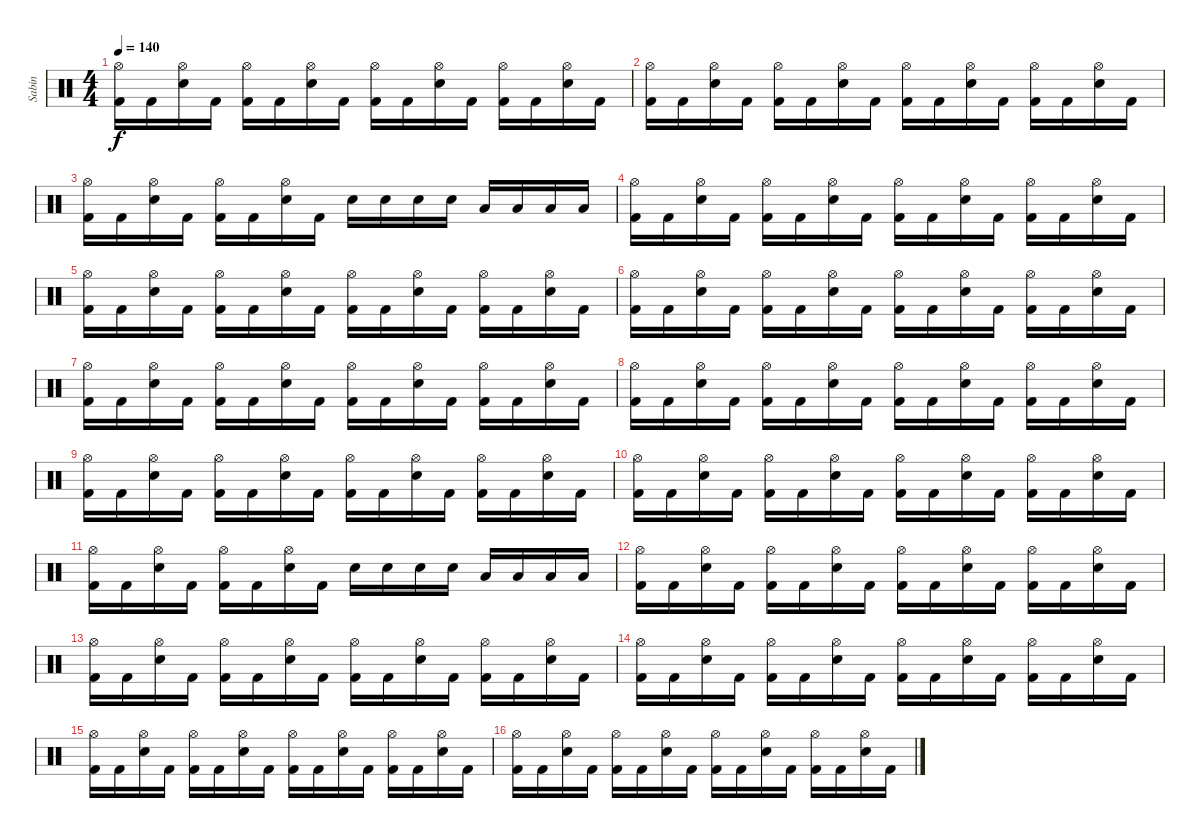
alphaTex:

\track ("Sabin" "Sabin") {instrument percussion}
\staff {score}
\articulation defaults
\ts (4 4)
\tempo 140
\clef neutral
\ks c
("Hi-Hat (open)" "Kick (hit) 2").16{dy f} "Kick (hit) 2".16 ("Hi-Hat (open)" "Snare (hit) 2").16 "Kick (hit) 2".16 ("Hi-Hat (open)" "Kick (hit) 2").16 "Kick (hit) 2".16 ("Hi-Hat (open)" "Snare (hit) 2").16 "Kick (hit) 2".16 ("Hi-Hat (open)" "Kick (hit) 2").16 "Kick (hit) 2".16 ("Hi-Hat (open)" "Snare (hit) 2").16 "Kick (hit) 2".16 ("Hi-Hat (open)" "Kick (hit) 2").16 "Kick (hit) 2".16 ("Hi-Hat (open)" "Snare (hit) 2").16 "Kick (hit) 2".16 |
("Hi-Hat (open)" "Kick (hit) 2").16 "Kick (hit) 2".16 ("Hi-Hat (open)" "Snare (hit) 2").16 "Kick (hit) 2".16 ("Hi-Hat (open)" "Kick (hit) 2").16 "Kick (hit) 2".16 ("Hi-Hat (open)" "Snare (hit) 2").16 "Kick (hit) 2".16 ("Hi-Hat (open)" "Kick (hit) 2").16 "Kick (hit) 2".16 ("Hi-Hat (open)" "Snare (hit) 2").16 "Kick (hit) 2".16 ("Hi-Hat (open)" "Kick (hit) 2").16 "Kick (hit) 2".16 ("Hi-Hat (open)" "Snare (hit) 2").16 "Kick (hit) 2".16 |
("Hi-Hat (open)" "Kick (hit) 2").16 "Kick (hit) 2".16 ("Hi-Hat (open)" "Snare (hit) 2").16 "Kick (hit) 2".16 ("Hi-Hat (open)" "Kick (hit) 2").16 "Kick (hit) 2".16 ("Hi-Hat (open)" "Snare (hit) 2").16 "Kick (hit) 2".16 "Snare (hit) 2".16 "Snare (hit) 2".16 "Snare (hit) 2".16 "Snare (hit) 2".16 "Low Floor Tom (hit)".16 "Low Floor Tom (hit)".16 "Low Floor Tom (hit)".16 "Low Floor Tom (hit)".16 |
("Hi-Hat (open)" "Kick (hit) 2").16 "Kick (hit) 2".16 ("Hi-Hat (open)" "Snare (hit) 2").16 "Kick (hit) 2".16 ("Hi-Hat (open)" "Kick (hit) 2").16 "Kick (hit) 2".16 ("Hi-Hat (open)" "Snare (hit) 2").16 "Kick (hit) 2".16 ("Hi-Hat (open)" "Kick (hit) 2").16 "Kick (hit) 2".16 ("Hi-Hat (open)" "Snare (hit) 2").16 "Kick (hit) 2".16 ("Hi-Hat (open)" "Kick (hit) 2").16 "Kick (hit) 2".16 ("Hi-Hat (open)" "Snare (hit) 2").16 "Kick (hit) 2".16 |
("Hi-Hat (open)" "Kick (hit) 2").16 "Kick (hit) 2".16 ("Hi-Hat (open)" "Snare (hit) 2").16 "Kick (hit) 2".16 ("Hi-Hat (open)" "Kick (hit) 2").16 "Kick (hit) 2".16 ("Hi-Hat (open)" "Snare (hit) 2").16 "Kick (hit) 2".16 ("Hi-Hat (open)" "Kick (hit) 2").16 "Kick (hit) 2".16 ("Hi-Hat (open)" "Snare (hit) 2").16 "Kick (hit) 2".16 ("Hi-Hat (open)" "Kick (hit) 2").16 "Kick (hit) 2".16 ("Hi-Hat (open)" "Snare (hit) 2").16 "Kick (hit) 2".16 |
("Hi-Hat (open)" "Kick (hit) 2").16 "Kick (hit) 2".16 ("Hi-Hat (open)" "Snare (hit) 2").16 "Kick (hit) 2".16 ("Hi-Hat (open)" "Kick (hit) 2").16 "Kick (hit) 2".16 ("Hi-Hat (open)" "Snare (hit) 2").16 "Kick (hit) 2".16 ("Hi-Hat (open)" "Kick (hit) 2").16 "Kick (hit) 2".16 ("Hi-Hat (open)" "Snare (hit) 2").16 "Kick (hit) 2".16 ("Hi-Hat (open)" "Kick (hit) 2").16 "Kick (hit) 2".16 ("Hi-Hat (open)" "Snare (hit) 2").16 "Kick (hit) 2".16 |
("Hi-Hat (open)" "Kick (hit) 2").16 "Kick (hit) 2".16 ("Hi-Hat (open)" "Snare (hit) 2").16 "Kick (hit) 2".16 ("Hi-Hat (open)" "Kick (hit) 2").16 "Kick (hit) 2".16 ("Hi-Hat (open)" "Snare (hit) 2").16 "Kick (hit) 2".16 ("Hi-Hat (open)" "Kick (hit) 2").16 "Kick (hit) 2".16 ("Hi-Hat (open)" "Snare (hit) 2").16 "Kick (hit) 2".16 ("Hi-Hat (open)" "Kick (hit) 2").16 "Kick (hit) 2".16 ("Hi-Hat (open)" "Snare (hit) 2").16 "Kick (hit) 2".16 |
("Hi-Hat (open)" "Kick (hit) 2").16 "Kick (hit) 2".16 ("Hi-Hat (open)" "Snare (hit) 2").16 "Kick (hit) 2".16 ("Hi-Hat (open)" "Kick (hit) 2").16 "Kick (hit) 2".16 ("Hi-Hat (open)" "Snare (hit) 2").16 "Kick (hit) 2".16 ("Hi-Hat (open)" "Kick (hit) 2").16 "Kick (hit) 2".16 ("Hi-Hat (open)" "Snare (hit) 2").16 "Kick (hit) 2".16 ("Hi-Hat (open)" "Kick (hit) 2").16 "Kick (hit) 2".16 ("Hi-Hat (open)" "Snare (hit) 2").16 "Kick (hit) 2".16 |
("Hi-Hat (open)" "Kick (hit) 2").16 "Kick (hit) 2".16 ("Hi-Hat (open)" "Snare (hit) 2").16 "Kick (hit) 2".16 ("Hi-Hat (open)" "Kick (hit) 2").16 "Kick (hit) 2".16 ("Hi-Hat (open)" "Snare (hit) 2").16 "Kick (hit) 2".16 ("Hi-Hat (open)" "Kick (hit) 2").16 "Kick (hit) 2".16 ("Hi-Hat (open)" "Snare (hit) 2").16 "Kick (hit) 2".16 ("Hi-Hat (open)" "Kick (hit) 2").16 "Kick (hit) 2".16 ("Hi-Hat (open)" "Snare (hit) 2").16 "Kick (hit) 2".16 |
("Hi-Hat (open)" "Kick (hit) 2").16 "Kick (hit) 2".16 ("Hi-Hat (open)" "Snare (hit) 2").16 "Kick (hit) 2".16 ("Hi-Hat (open)" "Kick (hit) 2").16 "Kick (hit) 2".16 ("Hi-Hat (open)" "Snare (hit) 2").16 "Kick (hit) 2".16 ("Hi-Hat (open)" "Kick (hit) 2").16 "Kick (hit) 2".16 ("Hi-Hat (open)" "Snare (hit) 2").16 "Kick (hit) 2".16 ("Hi-Hat (open)" "Kick (hit) 2").16 "Kick (hit) 2".16 ("Hi-Hat (open)" "Snare (hit) 2").16 "Kick (hit) 2".16 |
("Hi-Hat (open)" "Kick (hit) 2").16 "Kick (hit) 2".16 ("Hi-Hat (open)" "Snare (hit) 2").16 "Kick (hit) 2".16 ("Hi-Hat (open)" "Kick (hit) 2").16 "Kick (hit) 2".16 ("Hi-Hat (open)" "Snare (hit) 2").16 "Kick (hit) 2".16 "Snare (hit) 2".16 "Snare (hit) 2".16 "Snare (hit) 2".16 "Snare (hit) 2".16 "Low Floor Tom (hit)".16 "Low Floor Tom (hit)".16 "Low Floor Tom (hit)".16 "Low Floor Tom (hit)".16 |
("Hi-Hat (open)" "Kick (hit) 2").16 "Kick (hit) 2".16 ("Hi-Hat (open)" "Snare (hit) 2").16 "Kick (hit) 2".16 ("Hi-Hat (open)" "Kick (hit) 2").16 "Kick (hit) 2".16 ("Hi-Hat (open)" "Snare (hit) 2").16 "Kick (hit) 2".16 ("Hi-Hat (open)" "Kick (hit) 2").16 "Kick (hit) 2".16 ("Hi-Hat (open)" "Snare (hit) 2").16 "Kick (hit) 2".16 ("Hi-Hat (open)" "Kick (hit) 2").16 "Kick (hit) 2".16 ("Hi-Hat (open)" "Snare (hit) 2").16 "Kick (hit) 2".16 |
("Hi-Hat (open)" "Kick (hit) 2").16 "Kick (hit) 2".16 ("Hi-Hat (open)" "Snare (hit) 2").16 "Kick (hit) 2".16 ("Hi-Hat (open)" "Kick (hit) 2").16 "Kick (hit) 2".16 ("Hi-Hat (open)" "Snare (hit) 2").16 "Kick (hit) 2".16 ("Hi-Hat (open)" "Kick (hit) 2").16 "Kick (hit) 2".16 ("Hi-Hat (open)" "Snare (hit) 2").16 "Kick (hit) 2".16 ("Hi-Hat (open)" "Kick (hit) 2").16 "Kick (hit) 2".16 ("Hi-Hat (open)" "Snare (hit) 2").16 "Kick (hit) 2".16 |
("Hi-Hat (open)" "Kick (hit) 2").16 "Kick (hit) 2".16 ("Hi-Hat (open)" "Snare (hit) 2").16 "Kick (hit) 2".16 ("Hi-Hat (open)" "Kick (hit) 2").16 "Kick (hit) 2".16 ("Hi-Hat (open)" "Snare (hit) 2").16 "Kick (hit) 2".16 ("Hi-Hat (open)" "Kick (hit) 2").16 "Kick (hit) 2".16 ("Hi-Hat (open)" "Snare (hit) 2").16 "Kick (hit) 2".16 ("Hi-Hat (open)" "Kick (hit) 2").16 "Kick (hit) 2".16 ("Hi-Hat (open)" "Snare (hit) 2").16 "Kick (hit) 2".16 |
("Hi-Hat (open)" "Kick (hit) 2").16 "Kick (hit) 2".16 ("Hi-Hat (open)" "Snare (hit) 2").16 "Kick (hit) 2".16 ("Hi-Hat (open)" "Kick (hit) 2").16 "Kick (hit) 2".16 ("Hi-Hat (open)" "Snare (hit) 2").16 "Kick (hit) 2".16 ("Hi-Hat (open)" "Kick (hit) 2").16 "Kick (hit) 2".16 ("Hi-Hat (open)" "Snare (hit) 2").16 "Kick (hit) 2".16 ("Hi-Hat (open)" "Kick (hit) 2").16 "Kick (hit) 2".16 ("Hi-Hat (open)" "Snare (hit) 2").16 "Kick (hit) 2".16 |
("Hi-Hat (open)" "Kick (hit) 2").16 "Kick (hit) 2".16 ("Hi-Hat (open)" "Snare (hit) 2").16 "Kick (hit) 2".16 ("Hi-Hat (open)" "Kick (hit) 2").16 "Kick (hit) 2".16 ("Hi-Hat (open)" "Snare (hit) 2").16 "Kick (hit) 2".16 ("Hi-Hat (open)" "Kick (hit) 2").16 "Kick (hit) 2".16 ("Hi-Hat (open)" "Snare (hit) 2").16 "Kick (hit) 2".16 ("Hi-Hat (open)" "Kick (hit) 2").16 "Kick (hit) 2".16 ("Hi-Hat (open)" "Snare (hit) 2").16 "Kick (hit) 2".16
